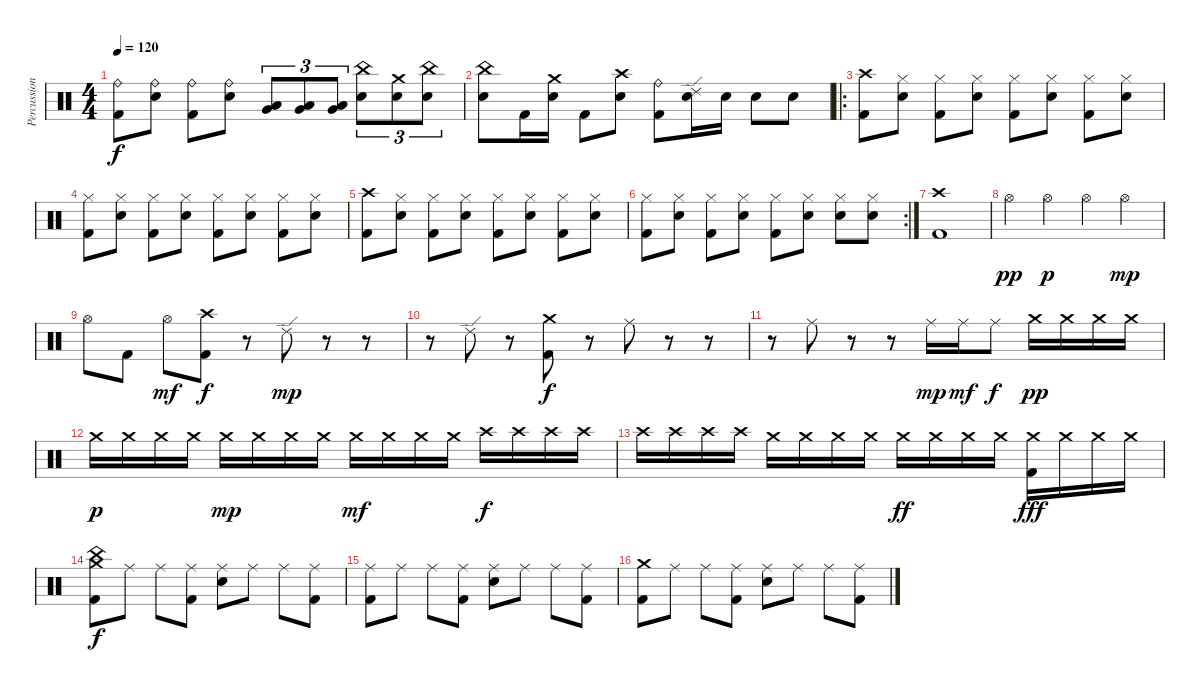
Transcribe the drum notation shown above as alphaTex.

\track ("Percussion" "Percussion") {instrument percussion}
\staff {score}
\articulation defaults
\ts (4 4)
\tempo 120
\clef neutral
\ks c
("Ride (bell)" "Kick (hit) 2").8{dy f} ("Ride (bell)" "Snare (hit) 2").8 ("Ride (bell)" "Kick (hit) 2").8 ("Ride (bell)" "Snare (hit) 2").8 ("Very Low Tom (hit)" "Low Floor Tom (hit)").8{tu (3 2)} ("Very Low Tom (hit)" "Low Floor Tom (hit)").8{tu (3 2)} ("Very Low Tom (hit)" "Low Floor Tom (hit)").8{tu (3 2)} ("China (hit)" "Snare (hit) 2").8{tu (3 2)} ("Crash medium (hit)" "Snare (hit) 2").8{tu (3 2)} ("China (hit)" "Snare (hit) 2").8{tu (3 2)} |
("China (hit)" "Snare (hit) 2").8 "Kick (hit) 2".16 ("Crash medium (hit)" "Snare (hit) 2").16 "Kick (hit) 2".8 ("Crash high (hit)" "Snare (hit) 2").8 ("Ride (bell)" "Kick (hit) 2").8 ("Ride (edge) 2" "Snare (hit) 2").16 "Snare (hit) 2".16 "Snare (hit) 2".8 "Snare (hit) 2".8 |
\ro
("Crash high (hit)" "Kick (hit) 2").8 ("Hi-Hat (closed)" "Snare (hit) 2").8 ("Hi-Hat (closed)" "Kick (hit) 2").8 ("Hi-Hat (closed)" "Snare (hit) 2").8 ("Hi-Hat (closed)" "Kick (hit) 2").8 ("Hi-Hat (closed)" "Snare (hit) 2").8 ("Hi-Hat (closed)" "Kick (hit) 2").8 ("Hi-Hat (closed)" "Snare (hit) 2").8 |
("Hi-Hat (closed)" "Kick (hit) 2").8 ("Hi-Hat (closed)" "Snare (hit) 2").8 ("Hi-Hat (closed)" "Kick (hit) 2").8 ("Hi-Hat (closed)" "Snare (hit) 2").8 ("Hi-Hat (closed)" "Kick (hit) 2").8 ("Hi-Hat (closed)" "Snare (hit) 2").8 ("Hi-Hat (closed)" "Kick (hit) 2").8 ("Hi-Hat (closed)" "Snare (hit) 2").8 |
("Crash high (hit)" "Kick (hit) 2").8 ("Hi-Hat (closed)" "Snare (hit) 2").8 ("Hi-Hat (closed)" "Kick (hit) 2").8 ("Hi-Hat (closed)" "Snare (hit) 2").8 ("Hi-Hat (closed)" "Kick (hit) 2").8 ("Hi-Hat (closed)" "Snare (hit) 2").8 ("Hi-Hat (closed)" "Kick (hit) 2").8 ("Hi-Hat (closed)" "Snare (hit) 2").8 |
\rc 2
("Hi-Hat (closed)" "Kick (hit) 2").8 ("Hi-Hat (closed)" "Snare (hit) 2").8 ("Hi-Hat (closed)" "Kick (hit) 2").8 ("Hi-Hat (closed)" "Snare (hit) 2").8 ("Hi-Hat (closed)" "Kick (hit) 2").8 ("Hi-Hat (closed)" "Snare (hit) 2").8 ("Hi-Hat (closed)" "Snare (hit) 2").8 ("Hi-Hat (closed)" "Snare (hit) 2").8 |
("Crash high (hit)" "Kick (hit) 2").1 |
"Hi-Hat (open)".4{dy pp} "Hi-Hat (open)".4{dy p} "Hi-Hat (open)".4 "Hi-Hat (open)".4{dy mp} |
"Hi-Hat (open)".8 "Kick (hit) 2".8 "Hi-Hat (open)".8{dy mf} ("Crash high (hit)" "Kick (hit) 2").8{dy f} r.8 "Ride (edge) 2".8{dy mp} r.8 r.8 |
r.8 "Ride (edge) 2".8 r.8 ("Crash medium (hit)" "Kick (hit) 2").8{dy f} r.8 "Ride (middle)".8 r.8 r.8 |
r.8 "Ride (middle)".8 r.8 r.8 "Ride (middle)".16{dy mp} "Ride (middle)".16{dy mf} "Ride (middle)".8{dy f} "Crash medium (hit)".16{dy pp} "Crash medium (hit)".16 "Crash medium (hit)".16 "Crash medium (hit)".16 |
"Crash medium (hit)".16{dy p} "Crash medium (hit)".16 "Crash medium (hit)".16 "Crash medium (hit)".16 "Crash medium (hit)".16{dy mp} "Crash medium (hit)".16 "Crash medium (hit)".16 "Crash medium (hit)".16 "Crash medium (hit)".16{dy mf} "Crash medium (hit)".16 "Crash medium (hit)".16 "Crash medium (hit)".16 "Crash high (hit)".16{dy f} "Crash high (hit)".16 "Crash high (hit)".16 "Crash high (hit)".16 |
"Crash high (hit)".16 "Crash high (hit)".16 "Crash high (hit)".16 "Crash high (hit)".16 "Crash medium (hit)".16 "Crash medium (hit)".16 "Crash medium (hit)".16 "Crash medium (hit)".16 "Crash medium (hit)".16{dy ff} "Crash medium (hit)".16 "Crash medium (hit)".16 "Crash medium (hit)".16 ("Crash medium (hit)" "Kick (hit) 2").16{dy fff} "Crash medium (hit)".16 "Crash medium (hit)".16 "Crash medium (hit)".16 |
("Crash medium (hit)" "China (hit)" "Kick (hit) 2").8{dy f} "Ride (middle)".8 "Ride (middle)".8 ("Ride (middle)" "Kick (hit) 2").8 ("Ride (middle)" "Snare (hit) 2").8 "Ride (middle)".8 "Ride (middle)".8 ("Ride (middle)" "Kick (hit) 2").8 |
("Ride (middle)" "Kick (hit) 2").8 "Ride (middle)".8 "Ride (middle)".8 ("Ride (middle)" "Kick (hit) 2").8 ("Ride (middle)" "Snare (hit) 2").8 "Ride (middle)".8 "Ride (middle)".8 ("Ride (middle)" "Kick (hit) 2").8 |
("Crash medium (hit)" "Kick (hit) 2").8 "Ride (middle)".8 "Ride (middle)".8 ("Ride (middle)" "Kick (hit) 2").8 ("Ride (middle)" "Snare (hit) 2").8 "Ride (middle)".8 "Ride (middle)".8 ("Ride (middle)" "Kick (hit) 2").8
